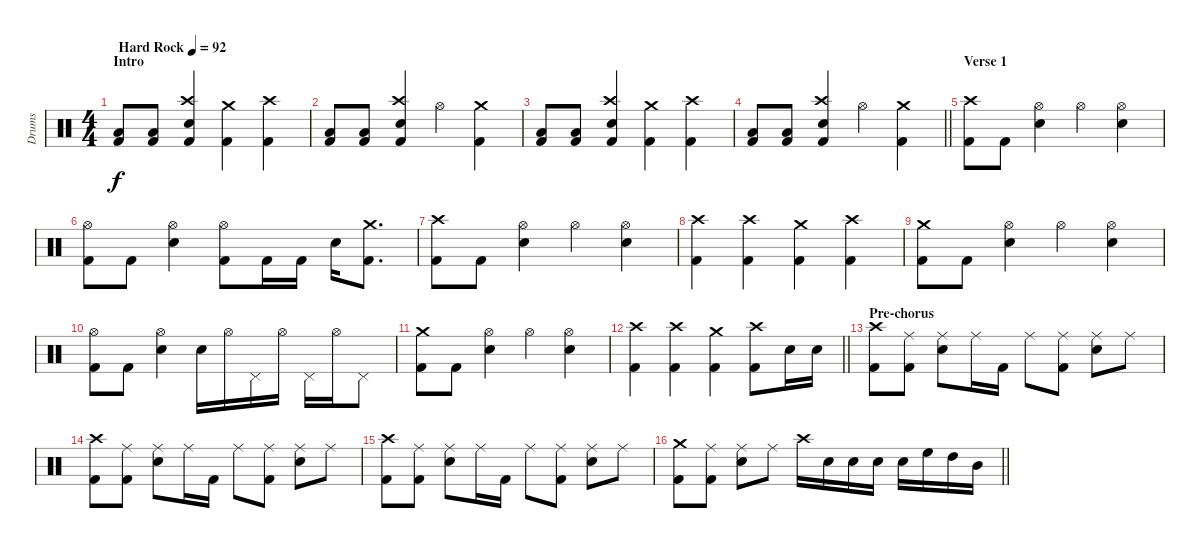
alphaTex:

\track ("Drums" "Drums") {instrument percussion}
\staff {score}
\articulation defaults
\ts (4 4)
\section ("" "Intro")
\tempo (92 "Hard Rock")
\clef neutral
\ks c
("Low Floor Tom (hit)" "Kick (hit) 2").8{dy f} ("Low Floor Tom (hit)" "Kick (hit) 2").8 ("Crash high (hit)" "Snare (hit) 2" "Kick (hit) 2").4 ("Crash medium (hit)" "Kick (hit) 2").4 ("Crash high (hit)" "Kick (hit) 2").4 |
("Low Floor Tom (hit)" "Kick (hit) 2").8 ("Low Floor Tom (hit)" "Kick (hit) 2").8 ("Crash high (hit)" "Snare (hit) 2" "Kick (hit) 2").4 "Hi-Hat (open)".4 ("Crash medium (hit)" "Kick (hit) 2").4 |
("Low Floor Tom (hit)" "Kick (hit) 2").8 ("Low Floor Tom (hit)" "Kick (hit) 2").8 ("Crash high (hit)" "Snare (hit) 2" "Kick (hit) 2").4 ("Crash medium (hit)" "Kick (hit) 2").4 ("Crash high (hit)" "Kick (hit) 2").4 |
\barLineRight lightlight
("Low Floor Tom (hit)" "Kick (hit) 2").8 ("Low Floor Tom (hit)" "Kick (hit) 2").8 ("Crash high (hit)" "Snare (hit) 2" "Kick (hit) 2").4 "Hi-Hat (open)".4 ("Crash medium (hit)" "Kick (hit) 2").4 |
\section ("" "Verse 1")
("Crash high (hit)" "Kick (hit) 2").8 "Kick (hit) 2".8 ("Hi-Hat (open)" "Snare (hit) 2").4 "Hi-Hat (open)".4 ("Hi-Hat (open)" "Snare (hit) 2").4 |
("Hi-Hat (open)" "Kick (hit) 2").8 "Kick (hit) 2".8 ("Hi-Hat (open)" "Snare (hit) 2").4 ("Hi-Hat (open)" "Kick (hit) 2").8 "Kick (hit) 2".16 "Kick (hit) 2".16 "Snare (hit) 2".16 ("Crash medium (hit)" "Kick (hit) 2").8{d} |
("Crash high (hit)" "Kick (hit) 2").8 "Kick (hit) 2".8 ("Hi-Hat (open)" "Snare (hit) 2").4 "Hi-Hat (open)".4 ("Hi-Hat (open)" "Snare (hit) 2").4 |
("Crash high (hit)" "Kick (hit) 2").4 ("Crash high (hit)" "Kick (hit) 2").4 ("Crash medium (hit)" "Kick (hit) 2").4 ("Crash high (hit)" "Kick (hit) 2").4 |
("Crash medium (hit)" "Kick (hit) 2").8 "Kick (hit) 2".8 ("Hi-Hat (open)" "Snare (hit) 2").4 "Hi-Hat (open)".4 ("Hi-Hat (open)" "Snare (hit) 2").4 |
("Hi-Hat (open)" "Kick (hit) 2").8 "Kick (hit) 2".8 ("Hi-Hat (open)" "Snare (hit) 2").4 "Snare (hit) 2".16 "Hi-Hat (open)".16 "Pedal Hi-Hat (hit)".16 "Hi-Hat (open)".16 "Pedal Hi-Hat (hit)".16 "Hi-Hat (open)".16 "Pedal Hi-Hat (hit)".8 |
("Crash medium (hit)" "Kick (hit) 2").8 "Kick (hit) 2".8 ("Hi-Hat (open)" "Snare (hit) 2").4 "Hi-Hat (open)".4 ("Hi-Hat (open)" "Snare (hit) 2").4 |
\barLineRight lightlight
("Crash high (hit)" "Kick (hit) 2").4 ("Crash high (hit)" "Kick (hit) 2").4 ("Crash medium (hit)" "Kick (hit) 2").4 ("Crash high (hit)" "Kick (hit) 2").8 "Snare (hit) 2".16 "Snare (hit) 2".16 |
\section ("" "Pre-chorus")
("Crash high (hit)" "Kick (hit) 2").8 ("Ride (middle)" "Kick (hit) 2").8 ("Ride (middle)" "Snare (hit) 2").8 "Ride (middle)".16 "Kick (hit) 2".16 "Ride (middle)".8 ("Ride (middle)" "Kick (hit) 2").8 ("Ride (middle)" "Snare (hit) 2").8 "Ride (middle)".8 |
("Crash high (hit)" "Kick (hit) 2").8 ("Ride (middle)" "Kick (hit) 2").8 ("Ride (middle)" "Snare (hit) 2").8 "Ride (middle)".16 "Kick (hit) 2".16 "Ride (middle)".8 ("Ride (middle)" "Kick (hit) 2").8 ("Ride (middle)" "Snare (hit) 2").8 "Ride (middle)".8 |
("Crash high (hit)" "Kick (hit) 2").8 ("Ride (middle)" "Kick (hit) 2").8 ("Ride (middle)" "Snare (hit) 2").8 "Ride (middle)".16 "Kick (hit) 2".16 "Ride (middle)".8 ("Ride (middle)" "Kick (hit) 2").8 ("Ride (middle)" "Snare (hit) 2").8 "Ride (middle)".8 |
\barLineRight lightlight
("Crash medium (hit)" "Kick (hit) 2").8 ("Ride (middle)" "Kick (hit) 2").8 ("Ride (middle)" "Snare (hit) 2").8 "Ride (middle)".8 "Crash high (hit)".16 "Snare (hit) 2".16 "Snare (hit) 2".16 "Snare (hit) 2".16 "Snare (hit) 2".16 "High Floor Tom (hit)".16 "High Tom (hit)".16 "Mid Tom (hit)".16
